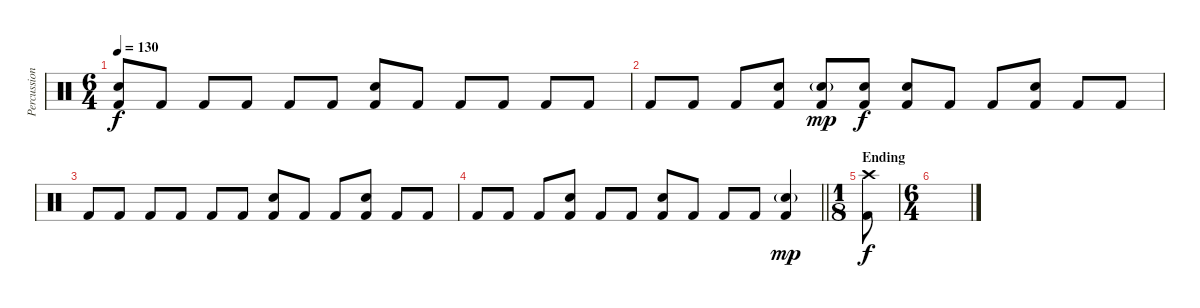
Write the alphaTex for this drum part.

\track ("Percussion" "Percussion") {instrument percussion}
\staff {score}
\articulation defaults
\ts (6 4)
\tempo 130
\clef neutral
\ks c
("Electric Snare (hit)" "Kick (hit) 2").8{dy f} "Kick (hit) 2".8 "Kick (hit) 2".8 "Kick (hit) 2".8 "Kick (hit) 2".8 "Kick (hit) 2".8 ("Electric Snare (hit)" "Kick (hit) 2").8 "Kick (hit) 2".8 "Kick (hit) 2".8 "Kick (hit) 2".8 "Kick (hit) 2".8 "Kick (hit) 2".8 |
"Kick (hit) 2".8 "Kick (hit) 2".8 "Kick (hit) 2".8 ("Electric Snare (hit)" "Kick (hit) 2").8 ("Electric Snare (hit)"{g} "Kick (hit) 2").8{dy mp} ("Electric Snare (hit)" "Kick (hit) 2").8{dy f} ("Electric Snare (hit)" "Kick (hit) 2").8 "Kick (hit) 2".8 "Kick (hit) 2".8 ("Electric Snare (hit)" "Kick (hit) 2").8 "Kick (hit) 2".8 "Kick (hit) 2".8 |
"Kick (hit) 2".8 "Kick (hit) 2".8 "Kick (hit) 2".8 "Kick (hit) 2".8 "Kick (hit) 2".8 "Kick (hit) 2".8 ("Electric Snare (hit)" "Kick (hit) 2").8 "Kick (hit) 2".8 "Kick (hit) 2".8 ("Electric Snare (hit)" "Kick (hit) 2").8 "Kick (hit) 2".8 "Kick (hit) 2".8 |
\barLineRight lightlight "Kick (hit) 2".8 "Kick (hit) 2".8 "Kick (hit) 2".8
("Electric Snare (hit)" "Kick (hit) 2").8 "Kick (hit) 2".8 "Kick (hit) 2".8 ("Electric Snare (hit)" "Kick (hit) 2").8 "Kick (hit) 2".8 "Kick (hit) 2".8 "Kick (hit) 2".8 ("Electric Snare (hit)"{g} "Kick (hit) 2").4{dy mp} |
\ts (1 8)
\section ("" "Ending")
("Crash high (hit)" "Kick (hit) 2").8{dy f} |
\ts (6 4)
